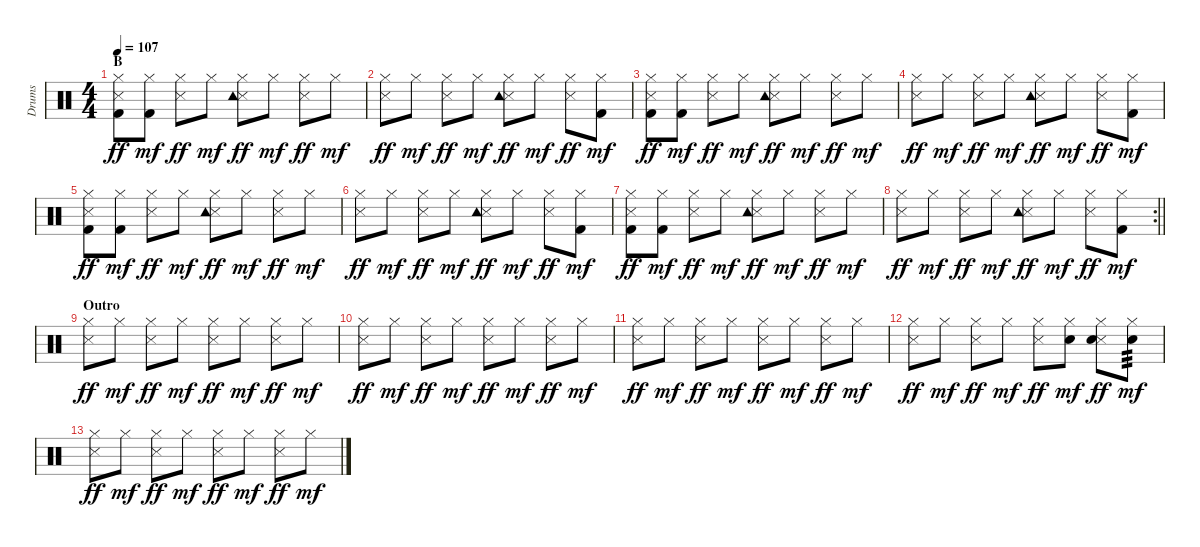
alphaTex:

\track ("Drums" "Drums") {instrument percussion}
\staff {score}
\articulation defaults
\ts (4 4)
\section ("" "B")
\tempo 107
\clef neutral
\ks c
("Hi-Hat (closed)" "Snare (side stick) 3" "Kick (hit) 2").8{dy ff} ("Hi-Hat (closed)" "Kick (hit) 2").8{dy mf} ("Hi-Hat (closed)" "Snare (side stick) 3").8{dy ff} "Hi-Hat (closed)".8{dy mf} ("Hi-Hat (closed)" "Snare (side stick) 3" "Tambourine (hit)").8{dy ff} "Hi-Hat (closed)".8{dy mf} ("Hi-Hat (closed)" "Snare (side stick) 3").8{dy ff} "Hi-Hat (closed)".8{dy mf} |
("Hi-Hat (closed)" "Snare (side stick) 3").8{dy ff} "Hi-Hat (closed)".8{dy mf} ("Hi-Hat (closed)" "Snare (side stick) 3").8{dy ff} "Hi-Hat (closed)".8{dy mf} ("Hi-Hat (closed)" "Snare (side stick) 3" "Tambourine (hit)").8{dy ff} "Hi-Hat (closed)".8{dy mf} ("Hi-Hat (closed)" "Snare (side stick) 3").8{dy ff} ("Hi-Hat (closed)" "Kick (hit) 2").8{dy mf} |
("Hi-Hat (closed)" "Snare (side stick) 3" "Kick (hit) 2").8{dy ff} ("Hi-Hat (closed)" "Kick (hit) 2").8{dy mf} ("Hi-Hat (closed)" "Snare (side stick) 3").8{dy ff} "Hi-Hat (closed)".8{dy mf} ("Hi-Hat (closed)" "Snare (side stick) 3" "Tambourine (hit)").8{dy ff} "Hi-Hat (closed)".8{dy mf} ("Hi-Hat (closed)" "Snare (side stick) 3").8{dy ff} "Hi-Hat (closed)".8{dy mf} |
("Hi-Hat (closed)" "Snare (side stick) 3").8{dy ff} "Hi-Hat (closed)".8{dy mf} ("Hi-Hat (closed)" "Snare (side stick) 3").8{dy ff} "Hi-Hat (closed)".8{dy mf} ("Hi-Hat (closed)" "Snare (side stick) 3" "Tambourine (hit)").8{dy ff} "Hi-Hat (closed)".8{dy mf} ("Hi-Hat (closed)" "Snare (side stick) 3").8{dy ff} ("Hi-Hat (closed)" "Kick (hit) 2").8{dy mf} |
("Hi-Hat (closed)" "Snare (side stick) 3" "Kick (hit) 2").8{dy ff} ("Hi-Hat (closed)" "Kick (hit) 2").8{dy mf} ("Hi-Hat (closed)" "Snare (side stick) 3").8{dy ff} "Hi-Hat (closed)".8{dy mf} ("Hi-Hat (closed)" "Snare (side stick) 3" "Tambourine (hit)").8{dy ff} "Hi-Hat (closed)".8{dy mf} ("Hi-Hat (closed)" "Snare (side stick) 3").8{dy ff} "Hi-Hat (closed)".8{dy mf} |
("Hi-Hat (closed)" "Snare (side stick) 3").8{dy ff} "Hi-Hat (closed)".8{dy mf} ("Hi-Hat (closed)" "Snare (side stick) 3").8{dy ff} "Hi-Hat (closed)".8{dy mf} ("Hi-Hat (closed)" "Snare (side stick) 3" "Tambourine (hit)").8{dy ff} "Hi-Hat (closed)".8{dy mf} ("Hi-Hat (closed)" "Snare (side stick) 3").8{dy ff} ("Hi-Hat (closed)" "Kick (hit) 2").8{dy mf} |
("Hi-Hat (closed)" "Snare (side stick) 3" "Kick (hit) 2").8{dy ff} ("Hi-Hat (closed)" "Kick (hit) 2").8{dy mf} ("Hi-Hat (closed)" "Snare (side stick) 3").8{dy ff} "Hi-Hat (closed)".8{dy mf} ("Hi-Hat (closed)" "Snare (side stick) 3" "Tambourine (hit)").8{dy ff} "Hi-Hat (closed)".8{dy mf} ("Hi-Hat (closed)" "Snare (side stick) 3").8{dy ff} "Hi-Hat (closed)".8{dy mf} |
\rc 2
\barLineRight lightlight
("Hi-Hat (closed)" "Snare (side stick) 3").8{dy ff} "Hi-Hat (closed)".8{dy mf} ("Hi-Hat (closed)" "Snare (side stick) 3").8{dy ff} "Hi-Hat (closed)".8{dy mf} ("Hi-Hat (closed)" "Snare (side stick) 3" "Tambourine (hit)").8{dy ff} "Hi-Hat (closed)".8{dy mf} ("Hi-Hat (closed)" "Snare (side stick) 3").8{dy ff} ("Hi-Hat (closed)" "Kick (hit) 2").8{dy mf} |
\section ("" "Outro")
("Hi-Hat (closed)" "Snare (side stick) 3").8{dy ff} "Hi-Hat (closed)".8{dy mf} ("Hi-Hat (closed)" "Snare (side stick) 3").8{dy ff} "Hi-Hat (closed)".8{dy mf} ("Hi-Hat (closed)" "Snare (side stick) 3").8{dy ff} "Hi-Hat (closed)".8{dy mf} ("Hi-Hat (closed)" "Snare (side stick) 3").8{dy ff} "Hi-Hat (closed)".8{dy mf} |
("Hi-Hat (closed)" "Snare (side stick) 3").8{dy ff} "Hi-Hat (closed)".8{dy mf} ("Hi-Hat (closed)" "Snare (side stick) 3").8{dy ff} "Hi-Hat (closed)".8{dy mf} ("Hi-Hat (closed)" "Snare (side stick) 3").8{dy ff} "Hi-Hat (closed)".8{dy mf} ("Hi-Hat (closed)" "Snare (side stick) 3").8{dy ff} "Hi-Hat (closed)".8{dy mf} |
("Hi-Hat (closed)" "Snare (side stick) 3").8{dy ff} "Hi-Hat (closed)".8{dy mf} ("Hi-Hat (closed)" "Snare (side stick) 3").8{dy ff} "Hi-Hat (closed)".8{dy mf} ("Hi-Hat (closed)" "Snare (side stick) 3").8{dy ff} "Hi-Hat (closed)".8{dy mf} ("Hi-Hat (closed)" "Snare (side stick) 3").8{dy ff} "Hi-Hat (closed)".8{dy mf} |
("Hi-Hat (closed)" "Snare (side stick) 3").8{dy ff} "Hi-Hat (closed)".8{dy mf} ("Hi-Hat (closed)" "Snare (side stick) 3").8{dy ff} "Hi-Hat (closed)".8{dy mf} ("Hi-Hat (closed)" "Snare (side stick) 3").8{dy ff} ("Hi-Hat (closed)" "Snare (hit) 2").8{dy mf} ("Hi-Hat (closed)" "Snare (side stick) 3" "Snare (hit) 2").8{dy ff} ("Hi-Hat (closed)" "Snare (hit) 2").8{tp 3 dy mf} |
("Hi-Hat (closed)" "Snare (side stick) 3").8{dy ff} "Hi-Hat (closed)".8{dy mf} ("Hi-Hat (closed)" "Snare (side stick) 3").8{dy ff} "Hi-Hat (closed)".8{dy mf} ("Hi-Hat (closed)" "Snare (side stick) 3").8{dy ff} "Hi-Hat (closed)".8{dy mf} ("Hi-Hat (closed)" "Snare (side stick) 3").8{dy ff} "Hi-Hat (closed)".8{dy mf}
